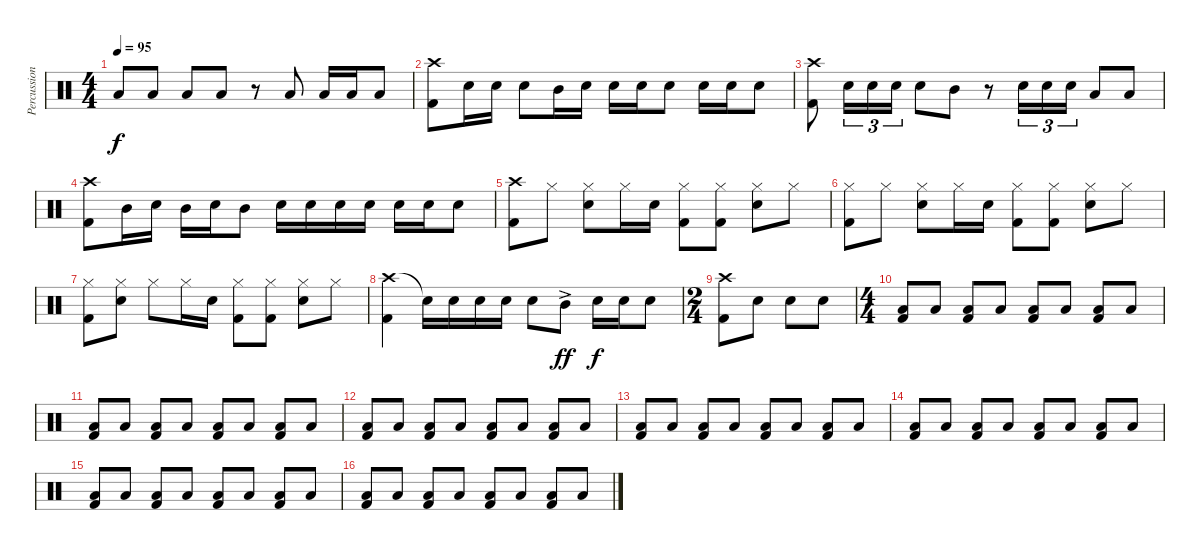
\track ("Percussion" "Percussion") {instrument percussion}
\staff {score}
\articulation defaults
\ts (4 4)
\tempo 95
\clef neutral
\ks c "Low Floor Tom (hit)".8{dy f} "Low Floor Tom (hit)".8 "Low Floor Tom (hit)".8 "Low Floor Tom (hit)".8
r.8 "Low Floor Tom (hit)".8 "Low Floor Tom (hit)".16 "Low Floor Tom (hit)".16 "Low Floor Tom (hit)".8 |
("Crash high (hit)" "Kick (hit) 2").8 "Snare (hit) 2".16 "Snare (hit) 2".16 "Snare (hit) 2".8 "Mid Tom (hit)".16 "Snare (hit) 2".16 "Snare (hit) 2".16 "Snare (hit) 2".16 "Snare (hit) 2".8 "Snare (hit) 2".16 "Snare (hit) 2".16 "Snare (hit) 2".8 |
("Crash high (hit)" "Kick (hit) 2").8 "Snare (hit) 2".16{tu (3 2)} "Snare (hit) 2".16{tu (3 2)} "Snare (hit) 2".16{tu (3 2)} "Snare (hit) 2".8 "Mid Tom (hit)".8 r.8 "Snare (hit) 2".16{tu (3 2)} "Snare (hit) 2".16{tu (3 2)} "Snare (hit) 2".16{tu (3 2)} "Low Floor Tom (hit)".8 "Low Floor Tom (hit)".8 |
("Crash high (hit)" "Kick (hit) 2").8 "Mid Tom (hit)".16 "Snare (hit) 2".16 "Mid Tom (hit)".16 "Snare (hit) 2".16 "Mid Tom (hit)".8 "Snare (hit) 2".16 "Snare (hit) 2".16 "Snare (hit) 2".16 "Snare (hit) 2".16 "Snare (hit) 2".16 "Snare (hit) 2".16 "Snare (hit) 2".8 |
("Crash high (hit)" "Kick (hit) 2").8 "Hi-Hat (closed)".8 ("Hi-Hat (closed)" "Snare (hit) 2").8 "Hi-Hat (closed)".16 "Snare (hit) 2".16 ("Hi-Hat (closed)" "Kick (hit) 2").8 ("Hi-Hat (closed)" "Kick (hit) 2").8 ("Hi-Hat (closed)" "Snare (hit) 2").8 "Hi-Hat (closed)".8 |
("Hi-Hat (closed)" "Kick (hit) 2").8 "Hi-Hat (closed)".8 ("Hi-Hat (closed)" "Snare (hit) 2").8 "Hi-Hat (closed)".16 "Snare (hit) 2".16 ("Hi-Hat (closed)" "Kick (hit) 2").8 ("Hi-Hat (closed)" "Kick (hit) 2").8 ("Hi-Hat (closed)" "Snare (hit) 2").8 "Hi-Hat (closed)".8 |
("Hi-Hat (closed)" "Kick (hit) 2").8 ("Hi-Hat (closed)" "Snare (hit) 2").8 "Hi-Hat (closed)".8 "Hi-Hat (closed)".16 "Snare (hit) 2".16 ("Hi-Hat (closed)" "Kick (hit) 2").8 ("Hi-Hat (closed)" "Kick (hit) 2").8 ("Hi-Hat (closed)" "Snare (hit) 2").8 "Hi-Hat (closed)".8 |
("Crash high (hit)" "Kick (hit) 2").4 "Snare (hit)"{t}.16 "Snare (hit) 2".16 "Snare (hit) 2".16 "Snare (hit) 2".16 "Snare (hit) 2".8 "Mid Tom (hit)"{ac}.8{dy ff} "Snare (hit) 2".16{dy f} "Snare (hit) 2".16 "Snare (hit) 2".8 |
\ts (2 4)
("Crash high (hit)" "Kick (hit) 2").8 "Snare (hit) 2".8 "Snare (hit) 2".8 "Snare (hit) 2".8 |
\ts (4 4)
("Low Floor Tom (hit)" "Kick (hit) 2").8 "Low Floor Tom (hit)".8 ("Low Floor Tom (hit)" "Kick (hit) 2").8 "Low Floor Tom (hit)".8 ("Low Floor Tom (hit)" "Kick (hit) 2").8 "Low Floor Tom (hit)".8 ("Low Floor Tom (hit)" "Kick (hit) 2").8 "Low Floor Tom (hit)".8 |
("Low Floor Tom (hit)" "Kick (hit) 2").8 "Low Floor Tom (hit)".8 ("Low Floor Tom (hit)" "Kick (hit) 2").8 "Low Floor Tom (hit)".8 ("Low Floor Tom (hit)" "Kick (hit) 2").8 "Low Floor Tom (hit)".8 ("Low Floor Tom (hit)" "Kick (hit) 2").8 "Low Floor Tom (hit)".8 |
("Low Floor Tom (hit)" "Kick (hit) 2").8 "Low Floor Tom (hit)".8 ("Low Floor Tom (hit)" "Kick (hit) 2").8 "Low Floor Tom (hit)".8 ("Low Floor Tom (hit)" "Kick (hit) 2").8 "Low Floor Tom (hit)".8 ("Low Floor Tom (hit)" "Kick (hit) 2").8 "Low Floor Tom (hit)".8 |
("Low Floor Tom (hit)" "Kick (hit) 2").8 "Low Floor Tom (hit)".8 ("Low Floor Tom (hit)" "Kick (hit) 2").8 "Low Floor Tom (hit)".8 ("Low Floor Tom (hit)" "Kick (hit) 2").8 "Low Floor Tom (hit)".8 ("Low Floor Tom (hit)" "Kick (hit) 2").8 "Low Floor Tom (hit)".8 |
("Low Floor Tom (hit)" "Kick (hit) 2").8 "Low Floor Tom (hit)".8 ("Low Floor Tom (hit)" "Kick (hit) 2").8 "Low Floor Tom (hit)".8 ("Low Floor Tom (hit)" "Kick (hit) 2").8 "Low Floor Tom (hit)".8 ("Low Floor Tom (hit)" "Kick (hit) 2").8 "Low Floor Tom (hit)".8 |
("Low Floor Tom (hit)" "Kick (hit) 2").8 "Low Floor Tom (hit)".8 ("Low Floor Tom (hit)" "Kick (hit) 2").8 "Low Floor Tom (hit)".8 ("Low Floor Tom (hit)" "Kick (hit) 2").8 "Low Floor Tom (hit)".8 ("Low Floor Tom (hit)" "Kick (hit) 2").8 "Low Floor Tom (hit)".8 |
("Low Floor Tom (hit)" "Kick (hit) 2").8 "Low Floor Tom (hit)".8 ("Low Floor Tom (hit)" "Kick (hit) 2").8 "Low Floor Tom (hit)".8 ("Low Floor Tom (hit)" "Kick (hit) 2").8 "Low Floor Tom (hit)".8 ("Low Floor Tom (hit)" "Kick (hit) 2").8 "Low Floor Tom (hit)".8
